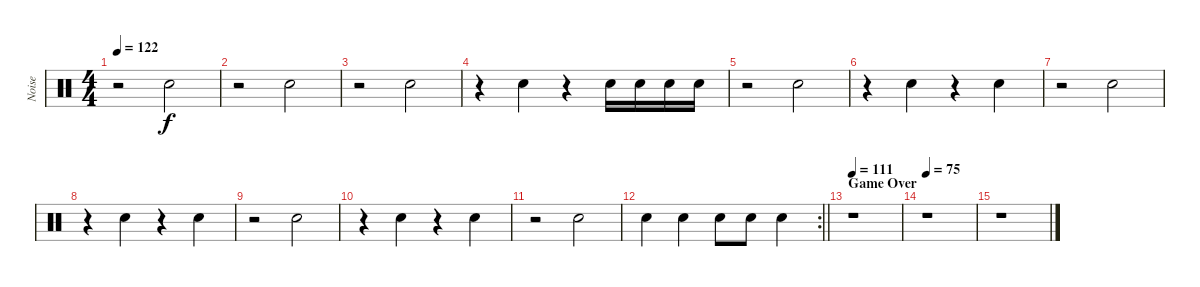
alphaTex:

\track ("Noise" "Noise") {instrument percussion}
\staff {score}
\articulation defaults
\ts (4 4)
\tempo 122
\clef neutral
\ks c
r.2{dy f} "Snare (hit) 2".2 |
r.2 "Snare (hit) 2".2 |
r.2 "Snare (hit) 2".2 |
r.4 "Snare (hit) 2".4 r.4 "Snare (hit) 2".16 "Snare (hit) 2".16 "Snare (hit) 2".16 "Snare (hit) 2".16 |
r.2 "Snare (hit) 2".2 |
r.4 "Snare (hit) 2".4 r.4 "Snare (hit) 2".4 |
r.2 "Snare (hit) 2".2 |
r.4 "Snare (hit) 2".4 r.4 "Snare (hit) 2".4 |
r.2 "Snare (hit) 2".2 |
r.4 "Snare (hit) 2".4 r.4 "Snare (hit) 2".4 |
r.2 "Snare (hit) 2".2 |
\rc 2
\barLineRight lightlight "Snare (hit) 2".4 "Snare (hit) 2".4 "Snare (hit) 2".8 "Snare (hit) 2".8 "Snare (hit) 2".4
|
\section ("" "Game Over")
\tempo 111
r.1{volume 13} |
\tempo 75
r.1 |
r.1
